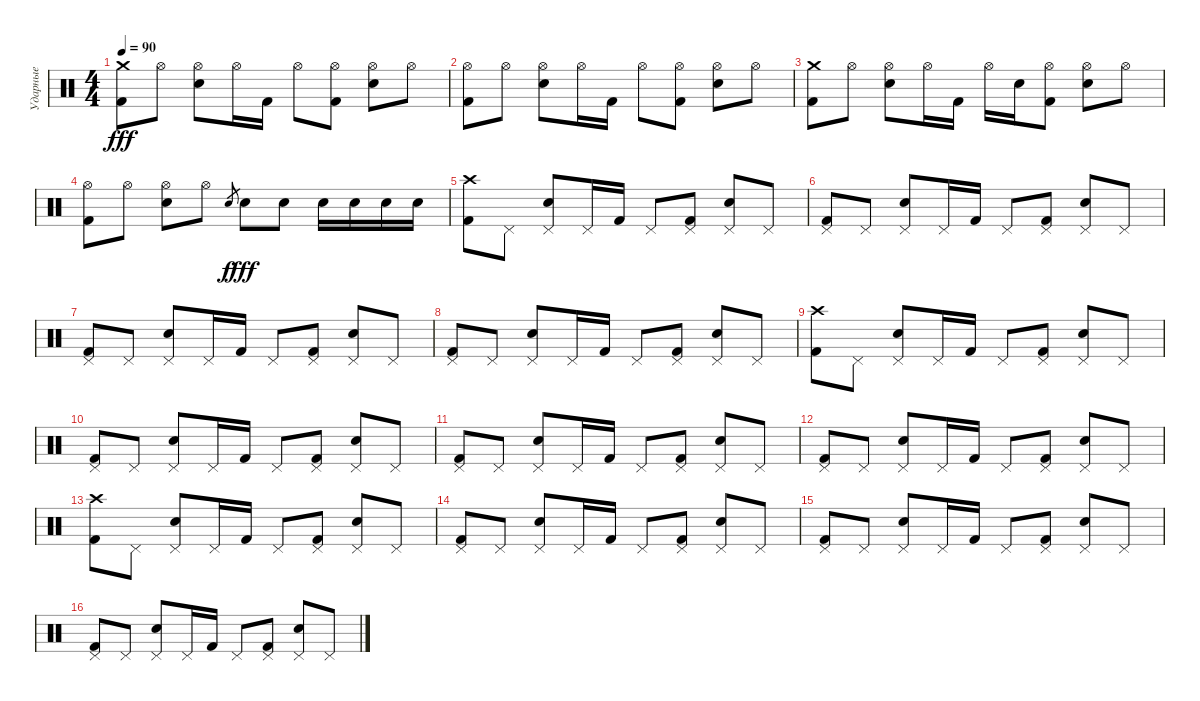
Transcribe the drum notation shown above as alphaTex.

\track ("Ударные" "Ударные") {instrument percussion}
\staff {score}
\articulation defaults
\ts (4 4)
\tempo 90
\clef neutral
\ks c
("Crash medium (hit)" "Kick (hit) 2").8{dy fff} "Hi-Hat (open)".8 ("Hi-Hat (open)" "Snare (hit) 2").8 "Hi-Hat (open)".16 "Kick (hit) 2".16 "Hi-Hat (open)".8 ("Hi-Hat (open)" "Kick (hit) 2").8 ("Hi-Hat (open)" "Snare (hit) 2").8 "Hi-Hat (open)".8 |
("Hi-Hat (open)" "Kick (hit) 2").8 "Hi-Hat (open)".8 ("Hi-Hat (open)" "Snare (hit) 2").8 "Hi-Hat (open)".16 "Kick (hit) 2".16 "Hi-Hat (open)".8 ("Hi-Hat (open)" "Kick (hit) 2").8 ("Hi-Hat (open)" "Snare (hit) 2").8 "Hi-Hat (open)".8 |
("Crash medium (hit)" "Kick (hit) 2").8 "Hi-Hat (open)".8 ("Hi-Hat (open)" "Snare (hit) 2").8 "Hi-Hat (open)".16 "Kick (hit) 2".16 "Hi-Hat (open)".16 "Snare (hit) 2".16 ("Hi-Hat (open)" "Kick (hit) 2").8 ("Hi-Hat (open)" "Snare (hit) 2").8 "Hi-Hat (open)".8 |
("Hi-Hat (open)" "Kick (hit) 2").8 "Hi-Hat (open)".8 ("Hi-Hat (open)" "Snare (hit) 2").8 "Hi-Hat (open)".8 "Snare (hit) 2".8{gr dy f} "Snare (hit) 2".8{dy fff} "Snare (hit) 2".8 "Snare (hit) 2".16 "Snare (hit) 2".16 "Snare (hit) 2".16 "Snare (hit) 2".16 |
("Crash high (hit)" "Kick (hit) 2").8 "Pedal Hi-Hat (hit)".8 ("Pedal Hi-Hat (hit)" "Snare (hit) 2").8 "Pedal Hi-Hat (hit)".16 "Kick (hit) 2".16 "Pedal Hi-Hat (hit)".8 ("Pedal Hi-Hat (hit)" "Kick (hit) 2").8 ("Pedal Hi-Hat (hit)" "Snare (hit) 2").8 "Pedal Hi-Hat (hit)".8 |
("Pedal Hi-Hat (hit)" "Kick (hit) 2").8 "Pedal Hi-Hat (hit)".8 ("Pedal Hi-Hat (hit)" "Snare (hit) 2").8 "Pedal Hi-Hat (hit)".16 "Kick (hit) 2".16 "Pedal Hi-Hat (hit)".8 ("Pedal Hi-Hat (hit)" "Kick (hit) 2").8 ("Pedal Hi-Hat (hit)" "Snare (hit) 2").8 "Pedal Hi-Hat (hit)".8 |
("Pedal Hi-Hat (hit)" "Kick (hit) 2").8 "Pedal Hi-Hat (hit)".8 ("Pedal Hi-Hat (hit)" "Snare (hit) 2").8 "Pedal Hi-Hat (hit)".16 "Kick (hit) 2".16 "Pedal Hi-Hat (hit)".8 ("Pedal Hi-Hat (hit)" "Kick (hit) 2").8 ("Pedal Hi-Hat (hit)" "Snare (hit) 2").8 "Pedal Hi-Hat (hit)".8 |
("Pedal Hi-Hat (hit)" "Kick (hit) 2").8 "Pedal Hi-Hat (hit)".8 ("Pedal Hi-Hat (hit)" "Snare (hit) 2").8 "Pedal Hi-Hat (hit)".16 "Kick (hit) 2".16 "Pedal Hi-Hat (hit)".8 ("Pedal Hi-Hat (hit)" "Kick (hit) 2").8 ("Pedal Hi-Hat (hit)" "Snare (hit) 2").8 "Pedal Hi-Hat (hit)".8 |
("Crash high (hit)" "Kick (hit) 2").8 "Pedal Hi-Hat (hit)".8 ("Pedal Hi-Hat (hit)" "Snare (hit) 2").8 "Pedal Hi-Hat (hit)".16 "Kick (hit) 2".16 "Pedal Hi-Hat (hit)".8 ("Pedal Hi-Hat (hit)" "Kick (hit) 2").8 ("Pedal Hi-Hat (hit)" "Snare (hit) 2").8 "Pedal Hi-Hat (hit)".8 |
("Pedal Hi-Hat (hit)" "Kick (hit) 2").8 "Pedal Hi-Hat (hit)".8 ("Pedal Hi-Hat (hit)" "Snare (hit) 2").8 "Pedal Hi-Hat (hit)".16 "Kick (hit) 2".16 "Pedal Hi-Hat (hit)".8 ("Pedal Hi-Hat (hit)" "Kick (hit) 2").8 ("Pedal Hi-Hat (hit)" "Snare (hit) 2").8 "Pedal Hi-Hat (hit)".8 |
("Pedal Hi-Hat (hit)" "Kick (hit) 2").8 "Pedal Hi-Hat (hit)".8 ("Pedal Hi-Hat (hit)" "Snare (hit) 2").8 "Pedal Hi-Hat (hit)".16 "Kick (hit) 2".16 "Pedal Hi-Hat (hit)".8 ("Pedal Hi-Hat (hit)" "Kick (hit) 2").8 ("Pedal Hi-Hat (hit)" "Snare (hit) 2").8 "Pedal Hi-Hat (hit)".8 |
("Pedal Hi-Hat (hit)" "Kick (hit) 2").8 "Pedal Hi-Hat (hit)".8 ("Pedal Hi-Hat (hit)" "Snare (hit) 2").8 "Pedal Hi-Hat (hit)".16 "Kick (hit) 2".16 "Pedal Hi-Hat (hit)".8 ("Pedal Hi-Hat (hit)" "Kick (hit) 2").8 ("Pedal Hi-Hat (hit)" "Snare (hit) 2").8 "Pedal Hi-Hat (hit)".8 |
("Crash high (hit)" "Kick (hit) 2").8 "Pedal Hi-Hat (hit)".8 ("Pedal Hi-Hat (hit)" "Snare (hit) 2").8 "Pedal Hi-Hat (hit)".16 "Kick (hit) 2".16 "Pedal Hi-Hat (hit)".8 ("Pedal Hi-Hat (hit)" "Kick (hit) 2").8 ("Pedal Hi-Hat (hit)" "Snare (hit) 2").8 "Pedal Hi-Hat (hit)".8 |
("Pedal Hi-Hat (hit)" "Kick (hit) 2").8 "Pedal Hi-Hat (hit)".8 ("Pedal Hi-Hat (hit)" "Snare (hit) 2").8 "Pedal Hi-Hat (hit)".16 "Kick (hit) 2".16 "Pedal Hi-Hat (hit)".8 ("Pedal Hi-Hat (hit)" "Kick (hit) 2").8 ("Pedal Hi-Hat (hit)" "Snare (hit) 2").8 "Pedal Hi-Hat (hit)".8 |
("Pedal Hi-Hat (hit)" "Kick (hit) 2").8 "Pedal Hi-Hat (hit)".8 ("Pedal Hi-Hat (hit)" "Snare (hit) 2").8 "Pedal Hi-Hat (hit)".16 "Kick (hit) 2".16 "Pedal Hi-Hat (hit)".8 ("Pedal Hi-Hat (hit)" "Kick (hit) 2").8 ("Pedal Hi-Hat (hit)" "Snare (hit) 2").8 "Pedal Hi-Hat (hit)".8 |
("Pedal Hi-Hat (hit)" "Kick (hit) 2").8 "Pedal Hi-Hat (hit)".8 ("Pedal Hi-Hat (hit)" "Snare (hit) 2").8 "Pedal Hi-Hat (hit)".16 "Kick (hit) 2".16 "Pedal Hi-Hat (hit)".8 ("Pedal Hi-Hat (hit)" "Kick (hit) 2").8 ("Pedal Hi-Hat (hit)" "Snare (hit) 2").8 "Pedal Hi-Hat (hit)".8
